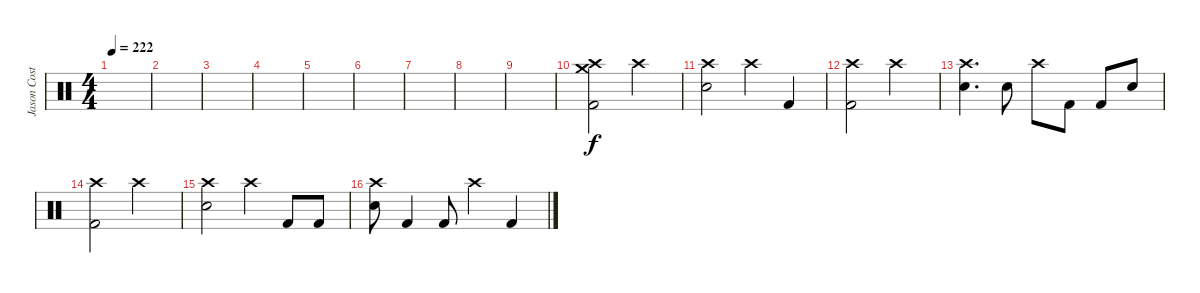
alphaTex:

\track ("Jason Costa" "Jason Cost") {instrument percussion}
\staff {score}
\articulation defaults
\ts (4 4)
\tempo 222
\clef neutral
\ks c
|
|
|
|
|
|
|
|
|
("Crash high (hit)" "Crash medium (hit)" "Kick (hit) 2").2 "Crash high (hit)".2 |
("Crash high (hit)" "Electric Snare (hit)").2 "Crash high (hit)".4 "Kick (hit) 2".4 |
("Crash high (hit)" "Kick (hit) 2").2 "Crash high (hit)".2 |
("Crash high (hit)" "Electric Snare (hit)").4{d} "Electric Snare (hit)".8 "Crash high (hit)".8 "Kick (hit) 2".8 "Kick (hit) 2".8 "Electric Snare (hit)".8 |
("Crash high (hit)" "Kick (hit) 2").2 "Crash high (hit)".2 |
("Crash high (hit)" "Electric Snare (hit)").2 "Crash high (hit)".4 "Kick (hit) 2".8 "Kick (hit) 2".8 |
("Crash high (hit)" "Electric Snare (hit)").8 "Kick (hit) 2".4 "Kick (hit) 2".8 "Crash high (hit)".4 "Kick (hit) 2".4
